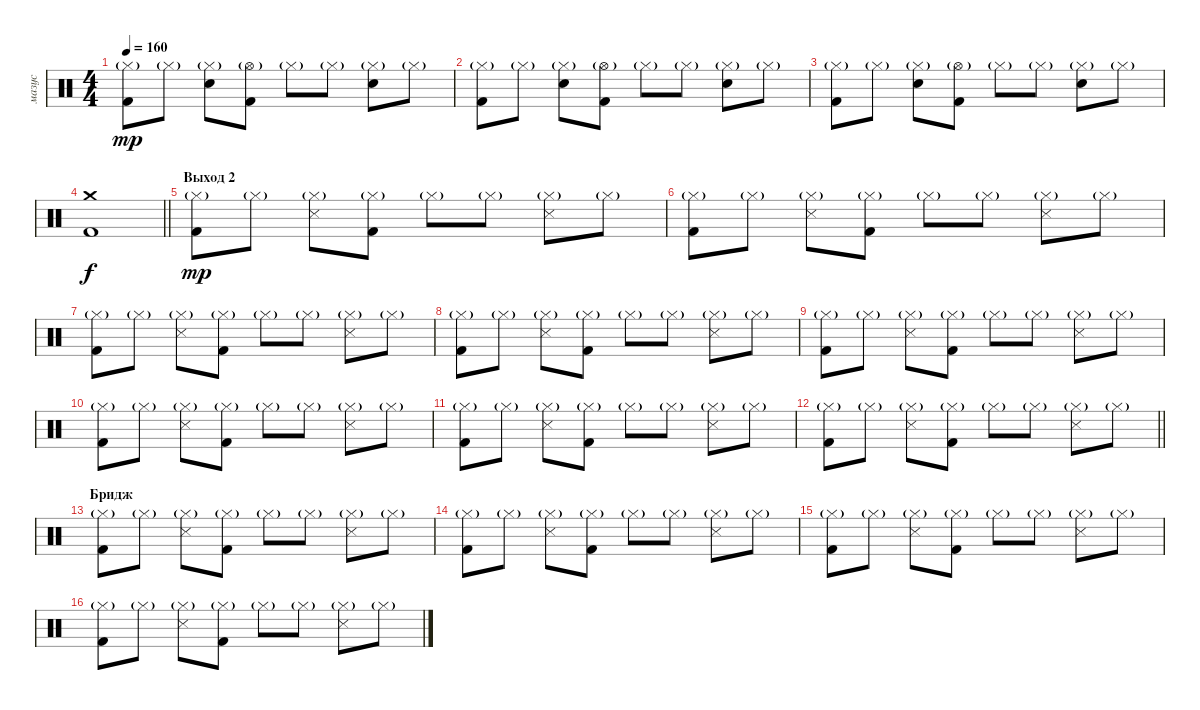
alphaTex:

\track ("мазус" "мазус") {instrument percussion}
\staff {score}
\articulation defaults
\ts (4 4)
\tempo 160
\clef neutral
\ks c
("Kick (hit) 2" "Hi-Hat (closed)"{g}).8{dy mp} "Hi-Hat (closed)"{g}.8 ("Electric Snare (hit)" "Hi-Hat (closed)"{g}).8 ("Kick (hit) 2" "Hi-Hat (open)"{g}).8 "Hi-Hat (closed)"{g}.8 "Hi-Hat (closed)"{g}.8 ("Electric Snare (hit)" "Hi-Hat (closed)"{g}).8 "Hi-Hat (closed)"{g}.8 |
("Kick (hit) 2" "Hi-Hat (closed)"{g}).8 "Hi-Hat (closed)"{g}.8 ("Electric Snare (hit)" "Hi-Hat (closed)"{g}).8 ("Kick (hit) 2" "Hi-Hat (open)"{g}).8 "Hi-Hat (closed)"{g}.8 "Hi-Hat (closed)"{g}.8 ("Electric Snare (hit)" "Hi-Hat (closed)"{g}).8 "Hi-Hat (closed)"{g}.8 |
("Kick (hit) 2" "Hi-Hat (closed)"{g}).8 "Hi-Hat (closed)"{g}.8 ("Electric Snare (hit)" "Hi-Hat (closed)"{g}).8 ("Kick (hit) 2" "Hi-Hat (open)"{g}).8 "Hi-Hat (closed)"{g}.8 "Hi-Hat (closed)"{g}.8 ("Electric Snare (hit)" "Hi-Hat (closed)"{g}).8 "Hi-Hat (closed)"{g}.8 |
\barLineRight lightlight
("Kick (hit) 2" "Crash medium (hit)").1{dy f} |
\section ("" "Выход 2")
("Kick (hit) 2" "Hi-Hat (closed)"{g}).8{dy mp} "Hi-Hat (closed)"{g}.8 ("Snare (side stick) 3" "Hi-Hat (closed)"{g}).8 ("Kick (hit) 2" "Hi-Hat (closed)"{g}).8 "Hi-Hat (closed)"{g}.8 "Hi-Hat (closed)"{g}.8 ("Snare (side stick) 3" "Hi-Hat (closed)"{g}).8 "Hi-Hat (closed)"{g}.8 |
("Kick (hit) 2" "Hi-Hat (closed)"{g}).8 "Hi-Hat (closed)"{g}.8 ("Snare (side stick) 3" "Hi-Hat (closed)"{g}).8 ("Kick (hit) 2" "Hi-Hat (closed)"{g}).8 "Hi-Hat (closed)"{g}.8 "Hi-Hat (closed)"{g}.8 ("Snare (side stick) 3" "Hi-Hat (closed)"{g}).8 "Hi-Hat (closed)"{g}.8 |
("Kick (hit) 2" "Hi-Hat (closed)"{g}).8 "Hi-Hat (closed)"{g}.8 ("Snare (side stick) 3" "Hi-Hat (closed)"{g}).8 ("Kick (hit) 2" "Hi-Hat (closed)"{g}).8 "Hi-Hat (closed)"{g}.8 "Hi-Hat (closed)"{g}.8 ("Snare (side stick) 3" "Hi-Hat (closed)"{g}).8 "Hi-Hat (closed)"{g}.8 |
("Kick (hit) 2" "Hi-Hat (closed)"{g}).8 "Hi-Hat (closed)"{g}.8 ("Snare (side stick) 3" "Hi-Hat (closed)"{g}).8 ("Kick (hit) 2" "Hi-Hat (closed)"{g}).8 "Hi-Hat (closed)"{g}.8 "Hi-Hat (closed)"{g}.8 ("Snare (side stick) 3" "Hi-Hat (closed)"{g}).8 "Hi-Hat (closed)"{g}.8 |
("Kick (hit) 2" "Hi-Hat (closed)"{g}).8 "Hi-Hat (closed)"{g}.8 ("Snare (side stick) 3" "Hi-Hat (closed)"{g}).8 ("Kick (hit) 2" "Hi-Hat (closed)"{g}).8 "Hi-Hat (closed)"{g}.8 "Hi-Hat (closed)"{g}.8 ("Snare (side stick) 3" "Hi-Hat (closed)"{g}).8 "Hi-Hat (closed)"{g}.8 |
("Kick (hit) 2" "Hi-Hat (closed)"{g}).8 "Hi-Hat (closed)"{g}.8 ("Snare (side stick) 3" "Hi-Hat (closed)"{g}).8 ("Kick (hit) 2" "Hi-Hat (closed)"{g}).8 "Hi-Hat (closed)"{g}.8 "Hi-Hat (closed)"{g}.8 ("Snare (side stick) 3" "Hi-Hat (closed)"{g}).8 "Hi-Hat (closed)"{g}.8 |
("Kick (hit) 2" "Hi-Hat (closed)"{g}).8 "Hi-Hat (closed)"{g}.8 ("Snare (side stick) 3" "Hi-Hat (closed)"{g}).8 ("Kick (hit) 2" "Hi-Hat (closed)"{g}).8 "Hi-Hat (closed)"{g}.8 "Hi-Hat (closed)"{g}.8 ("Snare (side stick) 3" "Hi-Hat (closed)"{g}).8 "Hi-Hat (closed)"{g}.8 |
\barLineRight lightlight
("Kick (hit) 2" "Hi-Hat (closed)"{g}).8 "Hi-Hat (closed)"{g}.8 ("Snare (side stick) 3" "Hi-Hat (closed)"{g}).8 ("Kick (hit) 2" "Hi-Hat (closed)"{g}).8 "Hi-Hat (closed)"{g}.8 "Hi-Hat (closed)"{g}.8 ("Snare (side stick) 3" "Hi-Hat (closed)"{g}).8 "Hi-Hat (closed)"{g}.8 |
\section ("" "Бридж")
("Kick (hit) 2" "Hi-Hat (closed)"{g}).8 "Hi-Hat (closed)"{g}.8 ("Snare (side stick) 3" "Hi-Hat (closed)"{g}).8 ("Kick (hit) 2" "Hi-Hat (closed)"{g}).8 "Hi-Hat (closed)"{g}.8 "Hi-Hat (closed)"{g}.8 ("Snare (side stick) 3" "Hi-Hat (closed)"{g}).8 "Hi-Hat (closed)"{g}.8 |
("Kick (hit) 2" "Hi-Hat (closed)"{g}).8 "Hi-Hat (closed)"{g}.8 ("Snare (side stick) 3" "Hi-Hat (closed)"{g}).8 ("Kick (hit) 2" "Hi-Hat (closed)"{g}).8 "Hi-Hat (closed)"{g}.8 "Hi-Hat (closed)"{g}.8 ("Snare (side stick) 3" "Hi-Hat (closed)"{g}).8 "Hi-Hat (closed)"{g}.8 |
("Kick (hit) 2" "Hi-Hat (closed)"{g}).8 "Hi-Hat (closed)"{g}.8 ("Snare (side stick) 3" "Hi-Hat (closed)"{g}).8 ("Kick (hit) 2" "Hi-Hat (closed)"{g}).8 "Hi-Hat (closed)"{g}.8 "Hi-Hat (closed)"{g}.8 ("Snare (side stick) 3" "Hi-Hat (closed)"{g}).8 "Hi-Hat (closed)"{g}.8 |
("Kick (hit) 2" "Hi-Hat (closed)"{g}).8 "Hi-Hat (closed)"{g}.8 ("Snare (side stick) 3" "Hi-Hat (closed)"{g}).8 ("Kick (hit) 2" "Hi-Hat (closed)"{g}).8 "Hi-Hat (closed)"{g}.8 "Hi-Hat (closed)"{g}.8 ("Snare (side stick) 3" "Hi-Hat (closed)"{g}).8 "Hi-Hat (closed)"{g}.8
